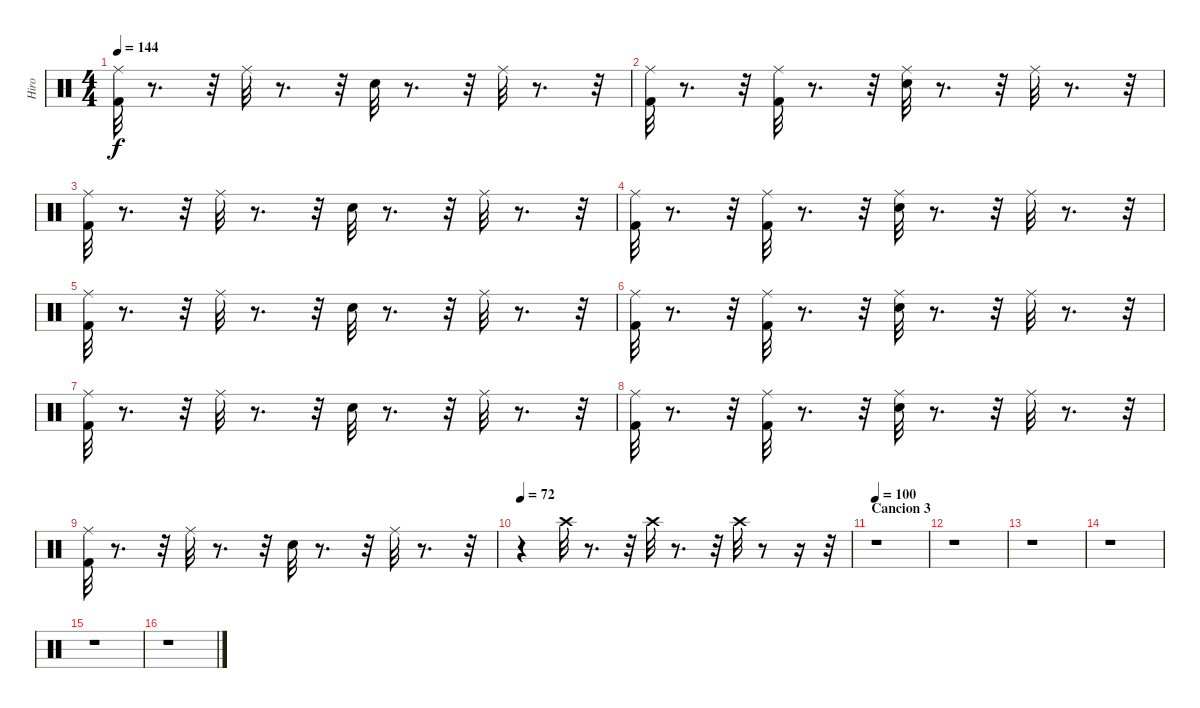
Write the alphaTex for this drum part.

\track ("Hiro" "Hiro") {instrument percussion}
\staff {score}
\articulation defaults
\ts (4 4)
\tempo 144
\clef neutral
\ks c
("Ride (middle)" "Kick (hit) 2").32{dy f} r.8{d} r.32 "Ride (middle)".32 r.8{d} r.32 "Snare (hit) 2".32 r.8{d} r.32 "Ride (middle)".32 r.8{d} r.32 |
("Kick (hit) 2" "Ride (middle)").32 r.8{d} r.32 ("Ride (middle)" "Kick (hit) 2").32 r.8{d} r.32 ("Ride (middle)" "Snare (hit) 2").32 r.8{d} r.32 "Ride (middle)".32 r.8{d} r.32 |
("Ride (middle)" "Kick (hit) 2").32 r.8{d} r.32 "Ride (middle)".32 r.8{d} r.32 "Snare (hit) 2".32 r.8{d} r.32 "Ride (middle)".32 r.8{d} r.32 |
("Ride (middle)" "Kick (hit) 2").32 r.8{d} r.32 ("Ride (middle)" "Kick (hit) 2").32 r.8{d} r.32 ("Ride (middle)" "Snare (hit) 2").32 r.8{d} r.32 "Ride (middle)".32 r.8{d} r.32 |
("Ride (middle)" "Kick (hit) 2").32 r.8{d} r.32 "Ride (middle)".32 r.8{d} r.32 "Snare (hit) 2".32 r.8{d} r.32 "Ride (middle)".32 r.8{d} r.32 |
("Ride (middle)" "Kick (hit) 2").32 r.8{d} r.32 ("Ride (middle)" "Kick (hit) 2").32 r.8{d} r.32 ("Ride (middle)" "Snare (hit) 2").32 r.8{d} r.32 "Ride (middle)".32 r.8{d} r.32 |
("Ride (middle)" "Kick (hit) 2").32 r.8{d} r.32 "Ride (middle)".32 r.8{d} r.32 "Snare (hit) 2".32 r.8{d} r.32 "Ride (middle)".32 r.8{d} r.32 |
("Ride (middle)" "Kick (hit) 2").32 r.8{d} r.32 ("Ride (middle)" "Kick (hit) 2").32 r.8{d} r.32 ("Ride (middle)" "Snare (hit) 2").32 r.8{d} r.32 "Ride (middle)".32 r.8{d} r.32 |
("Kick (hit) 2" "Ride (middle)").32 r.8{d} r.32 "Ride (middle)".32 r.8{d} r.32 "Snare (hit) 2".32 r.8{d} r.32 "Ride (middle)".32 r.8{d} r.32 |
\tempo 72
r.4 "Crash high (hit)".32 r.8{d} r.32 "Crash high (hit)".32 r.8{d} r.32 "Crash high (hit)".32 r.8 r.16 r.32 |
\section ("" "Cancion 3")
\tempo 100
r.1 |
r.1 |
r.1 |
r.1 |
r.1 |
r.1
